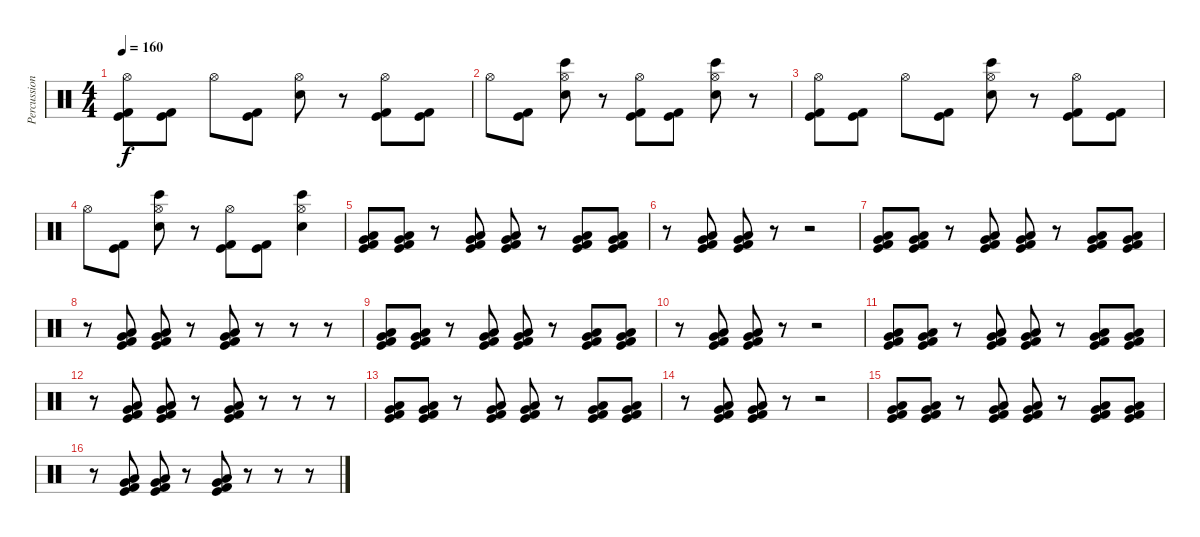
\track ("Percussion" "Percussion") {instrument percussion}
\staff {score}
\articulation defaults
\ts (4 4)
\tempo 160
\clef neutral
\ks c
("Hi-Hat (open)" "Kick (hit) 2" "Kick (hit)").8{dy f} ("Kick (hit) 2" "Kick (hit)").8 "Hi-Hat (open)".8 ("Kick (hit) 2" "Kick (hit)").8 ("Hi-Hat (open)" "Hand Clap (hit)").8 r.8 ("Hi-Hat (open)" "Kick (hit) 2" "Kick (hit)").8 ("Kick (hit) 2" "Kick (hit)").8 |
"Hi-Hat (open)".8 ("Kick (hit) 2" "Kick (hit)").8 ("Hi-Hat (open)" "Hand Clap (hit)" "Bongo High (hit)").8 r.8 ("Hi-Hat (open)" "Kick (hit) 2" "Kick (hit)").8 ("Kick (hit) 2" "Kick (hit)").8 ("Hi-Hat (open)" "Hand Clap (hit)" "Bongo High (hit)").8 r.8 |
("Hi-Hat (open)" "Kick (hit) 2" "Kick (hit)").8 ("Kick (hit) 2" "Kick (hit)").8 "Hi-Hat (open)".8 ("Kick (hit) 2" "Kick (hit)").8 ("Hi-Hat (open)" "Hand Clap (hit)" "Bongo High (hit)").8 r.8 ("Hi-Hat (open)" "Kick (hit) 2" "Kick (hit)").8 ("Kick (hit) 2" "Kick (hit)").8 |
"Hi-Hat (open)".8 ("Kick (hit) 2" "Kick (hit)").8 ("Hi-Hat (open)" "Hand Clap (hit)" "Bongo High (hit)").8 r.8 ("Hi-Hat (open)" "Kick (hit) 2" "Kick (hit)").8 ("Kick (hit) 2" "Kick (hit)").8 ("Hi-Hat (open)" "Hand Clap (hit)" "Bongo High (hit)").4 |
("Low Floor Tom (hit)" "Very Low Tom (hit)" "Kick (hit) 2" "Kick (hit)").8 ("Low Floor Tom (hit)" "Very Low Tom (hit)" "Kick (hit) 2" "Kick (hit)").8 r.8 ("Low Floor Tom (hit)" "Very Low Tom (hit)" "Kick (hit) 2" "Kick (hit)").8 ("Low Floor Tom (hit)" "Very Low Tom (hit)" "Kick (hit) 2" "Kick (hit)").8 r.8 ("Low Floor Tom (hit)" "Very Low Tom (hit)" "Kick (hit) 2" "Kick (hit)").8 ("Low Floor Tom (hit)" "Very Low Tom (hit)" "Kick (hit) 2" "Kick (hit)").8 |
r.8 ("Low Floor Tom (hit)" "Very Low Tom (hit)" "Kick (hit) 2" "Kick (hit)").8 ("Low Floor Tom (hit)" "Very Low Tom (hit)" "Kick (hit) 2" "Kick (hit)").8 r.8 r.2 |
("Low Floor Tom (hit)" "Very Low Tom (hit)" "Kick (hit) 2" "Kick (hit)").8 ("Low Floor Tom (hit)" "Very Low Tom (hit)" "Kick (hit) 2" "Kick (hit)").8 r.8 ("Low Floor Tom (hit)" "Very Low Tom (hit)" "Kick (hit) 2" "Kick (hit)").8 ("Low Floor Tom (hit)" "Very Low Tom (hit)" "Kick (hit) 2" "Kick (hit)").8 r.8 ("Low Floor Tom (hit)" "Very Low Tom (hit)" "Kick (hit) 2" "Kick (hit)").8 ("Low Floor Tom (hit)" "Very Low Tom (hit)" "Kick (hit) 2" "Kick (hit)").8 |
r.8 ("Low Floor Tom (hit)" "Very Low Tom (hit)" "Kick (hit) 2" "Kick (hit)").8 ("Low Floor Tom (hit)" "Very Low Tom (hit)" "Kick (hit) 2" "Kick (hit)").8 r.8 ("Low Floor Tom (hit)" "Very Low Tom (hit)" "Kick (hit) 2" "Kick (hit)").8 r.8 r.8 r.8 |
("Low Floor Tom (hit)" "Very Low Tom (hit)" "Kick (hit) 2" "Kick (hit)").8 ("Low Floor Tom (hit)" "Very Low Tom (hit)" "Kick (hit) 2" "Kick (hit)").8 r.8 ("Low Floor Tom (hit)" "Very Low Tom (hit)" "Kick (hit) 2" "Kick (hit)").8 ("Low Floor Tom (hit)" "Very Low Tom (hit)" "Kick (hit) 2" "Kick (hit)").8 r.8 ("Low Floor Tom (hit)" "Very Low Tom (hit)" "Kick (hit) 2" "Kick (hit)").8 ("Low Floor Tom (hit)" "Very Low Tom (hit)" "Kick (hit) 2" "Kick (hit)").8 |
r.8 ("Low Floor Tom (hit)" "Very Low Tom (hit)" "Kick (hit) 2" "Kick (hit)").8 ("Low Floor Tom (hit)" "Very Low Tom (hit)" "Kick (hit) 2" "Kick (hit)").8 r.8 r.2 |
("Low Floor Tom (hit)" "Very Low Tom (hit)" "Kick (hit) 2" "Kick (hit)").8 ("Low Floor Tom (hit)" "Very Low Tom (hit)" "Kick (hit) 2" "Kick (hit)").8 r.8 ("Low Floor Tom (hit)" "Very Low Tom (hit)" "Kick (hit) 2" "Kick (hit)").8 ("Low Floor Tom (hit)" "Very Low Tom (hit)" "Kick (hit) 2" "Kick (hit)").8 r.8 ("Low Floor Tom (hit)" "Very Low Tom (hit)" "Kick (hit) 2" "Kick (hit)").8 ("Low Floor Tom (hit)" "Very Low Tom (hit)" "Kick (hit) 2" "Kick (hit)").8 |
r.8 ("Low Floor Tom (hit)" "Very Low Tom (hit)" "Kick (hit) 2" "Kick (hit)").8 ("Low Floor Tom (hit)" "Very Low Tom (hit)" "Kick (hit) 2" "Kick (hit)").8 r.8 ("Low Floor Tom (hit)" "Very Low Tom (hit)" "Kick (hit) 2" "Kick (hit)").8 r.8 r.8 r.8 |
("Low Floor Tom (hit)" "Very Low Tom (hit)" "Kick (hit) 2" "Kick (hit)").8 ("Low Floor Tom (hit)" "Very Low Tom (hit)" "Kick (hit) 2" "Kick (hit)").8 r.8 ("Low Floor Tom (hit)" "Very Low Tom (hit)" "Kick (hit) 2" "Kick (hit)").8 ("Low Floor Tom (hit)" "Very Low Tom (hit)" "Kick (hit) 2" "Kick (hit)").8 r.8 ("Low Floor Tom (hit)" "Very Low Tom (hit)" "Kick (hit) 2" "Kick (hit)").8 ("Low Floor Tom (hit)" "Very Low Tom (hit)" "Kick (hit) 2" "Kick (hit)").8 |
r.8 ("Low Floor Tom (hit)" "Very Low Tom (hit)" "Kick (hit) 2" "Kick (hit)").8 ("Low Floor Tom (hit)" "Very Low Tom (hit)" "Kick (hit) 2" "Kick (hit)").8 r.8 r.2 |
("Low Floor Tom (hit)" "Very Low Tom (hit)" "Kick (hit) 2" "Kick (hit)").8 ("Low Floor Tom (hit)" "Very Low Tom (hit)" "Kick (hit) 2" "Kick (hit)").8 r.8 ("Low Floor Tom (hit)" "Very Low Tom (hit)" "Kick (hit) 2" "Kick (hit)").8 ("Low Floor Tom (hit)" "Very Low Tom (hit)" "Kick (hit) 2" "Kick (hit)").8 r.8 ("Low Floor Tom (hit)" "Very Low Tom (hit)" "Kick (hit) 2" "Kick (hit)").8 ("Low Floor Tom (hit)" "Very Low Tom (hit)" "Kick (hit) 2" "Kick (hit)").8 |
r.8 ("Low Floor Tom (hit)" "Very Low Tom (hit)" "Kick (hit) 2" "Kick (hit)").8 ("Low Floor Tom (hit)" "Very Low Tom (hit)" "Kick (hit) 2" "Kick (hit)").8 r.8 ("Low Floor Tom (hit)" "Very Low Tom (hit)" "Kick (hit) 2" "Kick (hit)").8 r.8 r.8 r.8
